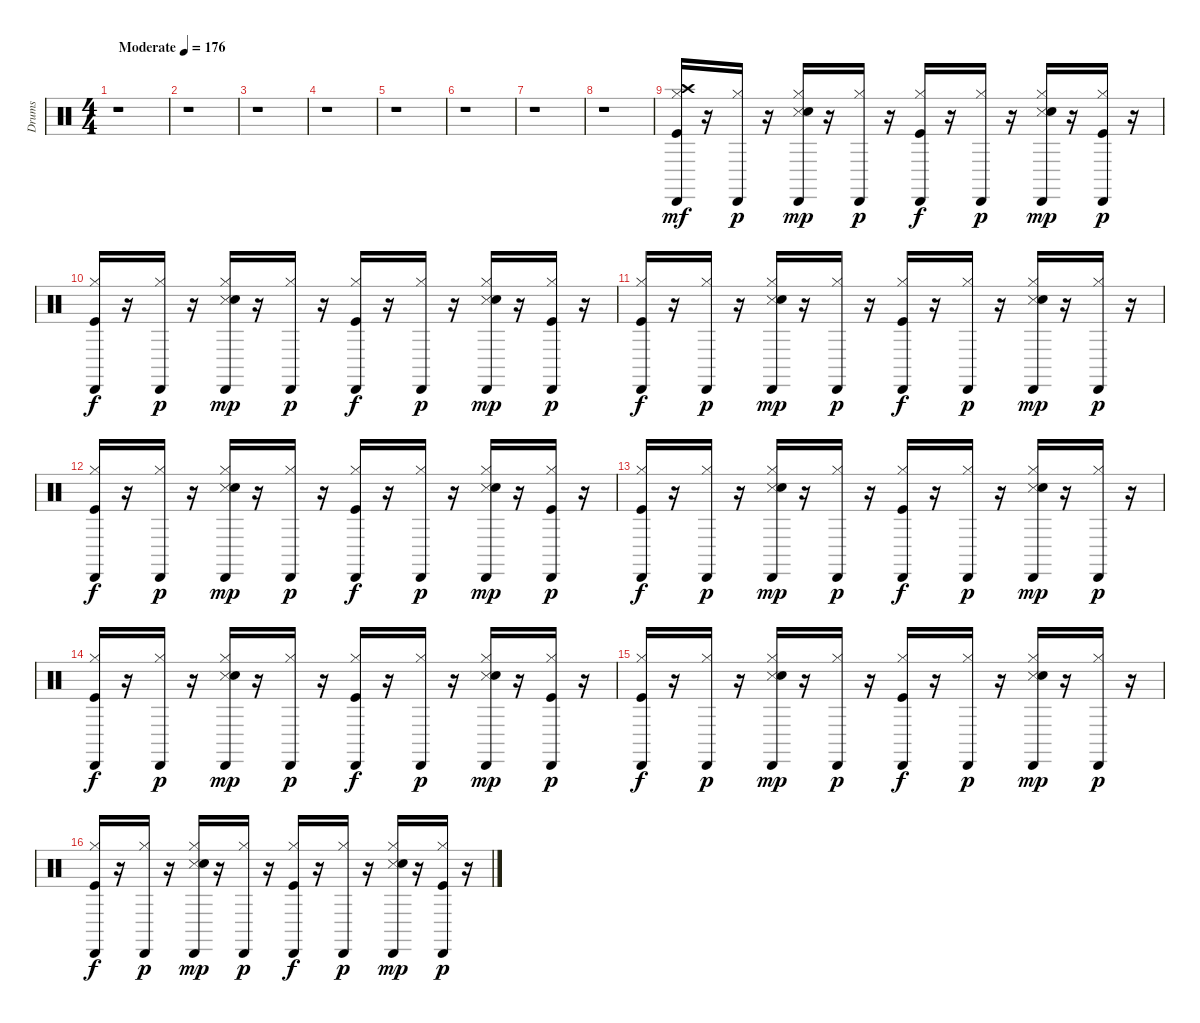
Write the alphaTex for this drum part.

\track ("Drums" "Drums") {instrument percussion}
\staff {score}
\articulation defaults
\ts (4 4)
\tempo (176 "Moderate")
\clef neutral
\ks c
r.1{dy mf} |
r.1 |
r.1 |
r.1 |
r.1 |
r.1 |
r.1 |
r.1 |
("Kick (hit)" "Hi-Hat (closed)" "Crash high (hit)" "Cabasa (hit)").16 r.16 ("Hi-Hat (closed)" "Cabasa (hit)").16{dy p} r.16 ("Hi-Hat (closed)" "Snare (side stick) 3" "Hand Clap (hit)" "Cabasa (hit)").16{dy mp} r.16 ("Hi-Hat (closed)" "Cabasa (hit)").16{dy p} r.16 ("Kick (hit)" "Hi-Hat (closed)" "Cabasa (hit)").16{dy f} r.16 ("Hi-Hat (closed)" "Cabasa (hit)").16{dy p} r.16 ("Hi-Hat (closed)" "Snare (side stick) 3" "Hand Clap (hit)" "Cabasa (hit)").16{dy mp} r.16 ("Kick (hit)" "Hi-Hat (closed)" "Cabasa (hit)").16{dy p} r.16 |
("Kick (hit)" "Hi-Hat (closed)" "Cabasa (hit)").16{dy f} r.16 ("Hi-Hat (closed)" "Cabasa (hit)").16{dy p} r.16 ("Hi-Hat (closed)" "Snare (side stick) 3" "Hand Clap (hit)" "Cabasa (hit)").16{dy mp} r.16 ("Hi-Hat (closed)" "Cabasa (hit)").16{dy p} r.16 ("Kick (hit)" "Hi-Hat (closed)" "Cabasa (hit)").16{dy f} r.16 ("Hi-Hat (closed)" "Cabasa (hit)").16{dy p} r.16 ("Hi-Hat (closed)" "Snare (side stick) 3" "Hand Clap (hit)" "Cabasa (hit)").16{dy mp} r.16 ("Kick (hit)" "Hi-Hat (closed)" "Cabasa (hit)").16{dy p} r.16 |
("Kick (hit)" "Hi-Hat (closed)" "Cabasa (hit)").16{dy f} r.16 ("Hi-Hat (closed)" "Cabasa (hit)").16{dy p} r.16 ("Hi-Hat (closed)" "Snare (side stick) 3" "Hand Clap (hit)" "Cabasa (hit)").16{dy mp} r.16 ("Hi-Hat (closed)" "Cabasa (hit)").16{dy p} r.16 ("Kick (hit)" "Hi-Hat (closed)" "Cabasa (hit)").16{dy f} r.16 ("Hi-Hat (closed)" "Cabasa (hit)").16{dy p} r.16 ("Hi-Hat (closed)" "Snare (side stick) 3" "Hand Clap (hit)" "Cabasa (hit)").16{dy mp} r.16 ("Hi-Hat (closed)" "Cabasa (hit)").16{dy p} r.16 |
("Kick (hit)" "Hi-Hat (closed)" "Cabasa (hit)").16{dy f} r.16 ("Hi-Hat (closed)" "Cabasa (hit)").16{dy p} r.16 ("Hi-Hat (closed)" "Snare (side stick) 3" "Hand Clap (hit)" "Cabasa (hit)").16{dy mp} r.16 ("Hi-Hat (closed)" "Cabasa (hit)").16{dy p} r.16 ("Kick (hit)" "Hi-Hat (closed)" "Cabasa (hit)").16{dy f} r.16 ("Hi-Hat (closed)" "Cabasa (hit)").16{dy p} r.16 ("Hi-Hat (closed)" "Snare (side stick) 3" "Hand Clap (hit)" "Cabasa (hit)").16{dy mp} r.16 ("Kick (hit)" "Hi-Hat (closed)" "Cabasa (hit)").16{dy p} r.16 |
("Kick (hit)" "Hi-Hat (closed)" "Cabasa (hit)").16{dy f} r.16 ("Hi-Hat (closed)" "Cabasa (hit)").16{dy p} r.16 ("Hi-Hat (closed)" "Snare (side stick) 3" "Hand Clap (hit)" "Cabasa (hit)").16{dy mp} r.16 ("Hi-Hat (closed)" "Cabasa (hit)").16{dy p} r.16 ("Kick (hit)" "Hi-Hat (closed)" "Cabasa (hit)").16{dy f} r.16 ("Hi-Hat (closed)" "Cabasa (hit)").16{dy p} r.16 ("Hi-Hat (closed)" "Snare (side stick) 3" "Hand Clap (hit)" "Cabasa (hit)").16{dy mp} r.16 ("Hi-Hat (closed)" "Cabasa (hit)").16{dy p} r.16 |
("Kick (hit)" "Hi-Hat (closed)" "Cabasa (hit)").16{dy f} r.16 ("Hi-Hat (closed)" "Cabasa (hit)").16{dy p} r.16 ("Hi-Hat (closed)" "Snare (side stick) 3" "Hand Clap (hit)" "Cabasa (hit)").16{dy mp} r.16 ("Hi-Hat (closed)" "Cabasa (hit)").16{dy p} r.16 ("Kick (hit)" "Hi-Hat (closed)" "Cabasa (hit)").16{dy f} r.16 ("Hi-Hat (closed)" "Cabasa (hit)").16{dy p} r.16 ("Hi-Hat (closed)" "Snare (side stick) 3" "Hand Clap (hit)" "Cabasa (hit)").16{dy mp} r.16 ("Kick (hit)" "Hi-Hat (closed)" "Cabasa (hit)").16{dy p} r.16 |
("Kick (hit)" "Hi-Hat (closed)" "Cabasa (hit)").16{dy f} r.16 ("Hi-Hat (closed)" "Cabasa (hit)").16{dy p} r.16 ("Hi-Hat (closed)" "Snare (side stick) 3" "Hand Clap (hit)" "Cabasa (hit)").16{dy mp} r.16 ("Hi-Hat (closed)" "Cabasa (hit)").16{dy p} r.16 ("Kick (hit)" "Hi-Hat (closed)" "Cabasa (hit)").16{dy f} r.16 ("Hi-Hat (closed)" "Cabasa (hit)").16{dy p} r.16 ("Hi-Hat (closed)" "Snare (side stick) 3" "Hand Clap (hit)" "Cabasa (hit)").16{dy mp} r.16 ("Hi-Hat (closed)" "Cabasa (hit)").16{dy p} r.16 |
("Kick (hit)" "Hi-Hat (closed)" "Cabasa (hit)").16{dy f} r.16 ("Hi-Hat (closed)" "Cabasa (hit)").16{dy p} r.16 ("Hi-Hat (closed)" "Snare (side stick) 3" "Hand Clap (hit)" "Cabasa (hit)").16{dy mp} r.16 ("Hi-Hat (closed)" "Cabasa (hit)").16{dy p} r.16 ("Kick (hit)" "Hi-Hat (closed)" "Cabasa (hit)").16{dy f} r.16 ("Hi-Hat (closed)" "Cabasa (hit)").16{dy p} r.16 ("Hi-Hat (closed)" "Snare (side stick) 3" "Hand Clap (hit)" "Cabasa (hit)").16{dy mp} r.16 ("Kick (hit)" "Hi-Hat (closed)" "Cabasa (hit)").16{dy p} r.16
